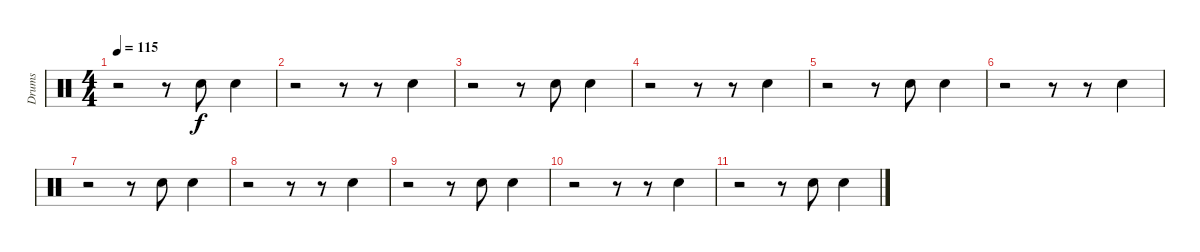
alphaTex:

\track ("Drums" "Drums") {instrument percussion}
\staff {score}
\articulation defaults
\ts (4 4)
\tempo 115
\clef neutral
\ks c
r.2{dy f} r.8 "Hand Clap (hit)".8 "Hand Clap (hit)".4 |
r.2 r.8 r.8 "Hand Clap (hit)".4 |
r.2 r.8 "Hand Clap (hit)".8 "Hand Clap (hit)".4 |
r.2 r.8 r.8 "Hand Clap (hit)".4 |
r.2{volume 8} r.8 "Hand Clap (hit)".8 "Hand Clap (hit)".4 |
r.2 r.8 r.8 "Hand Clap (hit)".4 |
r.2{volume 6} r.8 "Hand Clap (hit)".8 "Hand Clap (hit)".4 |
r.2{volume 5} r.8 r.8 "Hand Clap (hit)".4 |
r.2{volume 4} r.8 "Hand Clap (hit)".8 "Hand Clap (hit)".4 |
r.2{volume 3} r.8 r.8 "Hand Clap (hit)".4 |
r.2{volume 2} r.8 "Hand Clap (hit)".8 "Hand Clap (hit)".4
